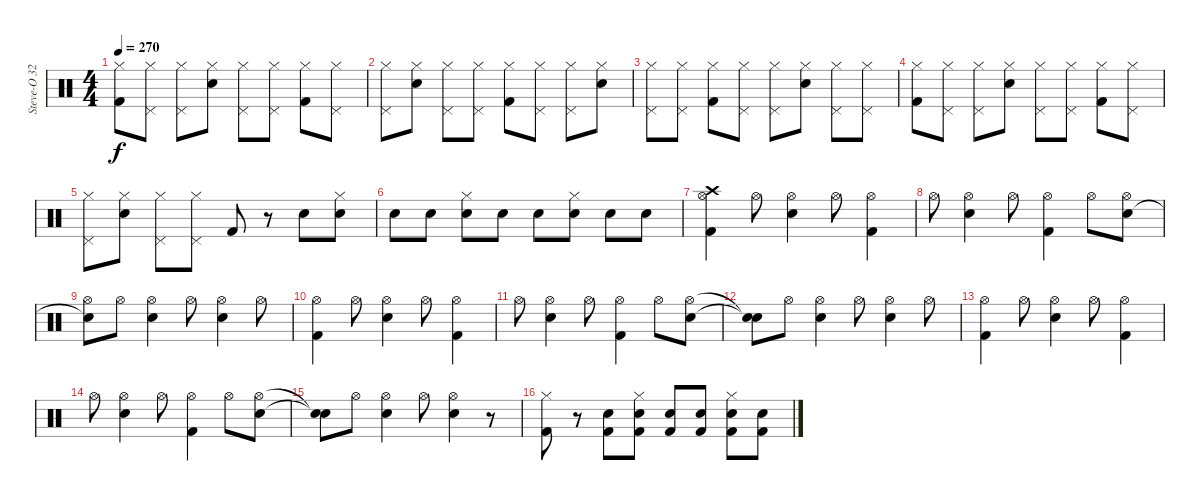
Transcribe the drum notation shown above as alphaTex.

\track ("Steve-O 32" "Steve-O 32") {instrument percussion}
\staff {score}
\articulation defaults
\ts (4 4)
\tempo 270
\clef neutral
\ks c
("Hi-Hat (closed)" "Kick (hit) 2").8{dy f} ("Pedal Hi-Hat (hit)" "Hi-Hat (closed)").8 ("Pedal Hi-Hat (hit)" "Hi-Hat (closed)").8 ("Electric Snare (hit)" "Hi-Hat (closed)").8 ("Pedal Hi-Hat (hit)" "Hi-Hat (closed)").8 ("Pedal Hi-Hat (hit)" "Hi-Hat (closed)").8 ("Hi-Hat (closed)" "Kick (hit) 2").8 ("Pedal Hi-Hat (hit)" "Hi-Hat (closed)").8 |
("Pedal Hi-Hat (hit)" "Hi-Hat (closed)").8 ("Electric Snare (hit)" "Hi-Hat (closed)").8 ("Pedal Hi-Hat (hit)" "Hi-Hat (closed)").8 ("Pedal Hi-Hat (hit)" "Hi-Hat (closed)").8 ("Kick (hit) 2" "Hi-Hat (closed)").8 ("Pedal Hi-Hat (hit)" "Hi-Hat (closed)").8 ("Pedal Hi-Hat (hit)" "Hi-Hat (closed)").8 ("Electric Snare (hit)" "Hi-Hat (closed)").8 |
("Pedal Hi-Hat (hit)" "Hi-Hat (closed)").8 ("Pedal Hi-Hat (hit)" "Hi-Hat (closed)").8 ("Kick (hit) 2" "Hi-Hat (closed)").8 ("Pedal Hi-Hat (hit)" "Hi-Hat (closed)").8 ("Pedal Hi-Hat (hit)" "Hi-Hat (closed)").8 ("Electric Snare (hit)" "Hi-Hat (closed)").8 ("Pedal Hi-Hat (hit)" "Hi-Hat (closed)").8 ("Pedal Hi-Hat (hit)" "Hi-Hat (closed)").8 |
("Hi-Hat (closed)" "Kick (hit) 2").8 ("Pedal Hi-Hat (hit)" "Hi-Hat (closed)").8 ("Pedal Hi-Hat (hit)" "Hi-Hat (closed)").8 ("Electric Snare (hit)" "Hi-Hat (closed)").8 ("Pedal Hi-Hat (hit)" "Hi-Hat (closed)").8 ("Pedal Hi-Hat (hit)" "Hi-Hat (closed)").8 ("Hi-Hat (closed)" "Kick (hit) 2").8 ("Pedal Hi-Hat (hit)" "Hi-Hat (closed)").8 |
("Pedal Hi-Hat (hit)" "Hi-Hat (closed)").8 ("Electric Snare (hit)" "Hi-Hat (closed)").8 ("Pedal Hi-Hat (hit)" "Hi-Hat (closed)").8 ("Pedal Hi-Hat (hit)" "Hi-Hat (closed)").8 "Kick (hit) 2".8 r.8 "Electric Snare (hit)".8 ("Electric Snare (hit)" "Hi-Hat (closed)").8 |
"Electric Snare (hit)".8 "Electric Snare (hit)".8 ("Electric Snare (hit)" "Hi-Hat (closed)").8 "Electric Snare (hit)".8 "Electric Snare (hit)".8 ("Electric Snare (hit)" "Hi-Hat (closed)").8 "Electric Snare (hit)".8 "Electric Snare (hit)".8 |
("Crash high (hit)" "Hi-Hat (open)" "Kick (hit) 2").4 "Hi-Hat (open)".8 ("Electric Snare (hit)" "Hi-Hat (open)").4 "Hi-Hat (open)".8 ("Kick (hit) 2" "Hi-Hat (open)").4 |
"Hi-Hat (open)".8 ("Electric Snare (hit)" "Hi-Hat (open)").4 "Hi-Hat (open)".8 ("Kick (hit) 2" "Hi-Hat (open)").4 "Hi-Hat (open)".8 ("Electric Snare (hit)" "Hi-Hat (open)").8 |
("Snare (hit)"{t} "Hi-Hat (open)").8 "Hi-Hat (open)".8 ("Electric Snare (hit)" "Hi-Hat (open)").4 "Hi-Hat (open)".8 ("Electric Snare (hit)" "Hi-Hat (open)").4 "Hi-Hat (open)".8 |
("Hi-Hat (open)" "Kick (hit) 2").4 "Hi-Hat (open)".8 ("Electric Snare (hit)" "Hi-Hat (open)").4 "Hi-Hat (open)".8 ("Kick (hit) 2" "Hi-Hat (open)").4 |
"Hi-Hat (open)".8 ("Electric Snare (hit)" "Hi-Hat (open)").4 "Hi-Hat (open)".8 ("Kick (hit) 2" "Hi-Hat (open)").4 "Hi-Hat (open)".8 ("Electric Snare (hit)" "Hi-Hat (open)").8 |
("Snare (hit)"{t} "Snare (hit)"{t}).8 "Hi-Hat (open)".8 ("Electric Snare (hit)" "Hi-Hat (open)").4 "Hi-Hat (open)".8 ("Electric Snare (hit)" "Hi-Hat (open)").4 "Hi-Hat (open)".8 |
("Hi-Hat (open)" "Kick (hit) 2").4 "Hi-Hat (open)".8 ("Electric Snare (hit)" "Hi-Hat (open)").4 "Hi-Hat (open)".8 ("Kick (hit) 2" "Hi-Hat (open)").4 |
"Hi-Hat (open)".8 ("Electric Snare (hit)" "Hi-Hat (open)").4 "Hi-Hat (open)".8 ("Kick (hit) 2" "Hi-Hat (open)").4 "Hi-Hat (open)".8 ("Electric Snare (hit)" "Hi-Hat (open)").8 |
("Snare (hit)"{t} "Snare (hit)"{t}).8 "Hi-Hat (open)".8 ("Electric Snare (hit)" "Hi-Hat (open)").4 "Hi-Hat (open)".8 ("Electric Snare (hit)" "Hi-Hat (open)").4 r.8{volume 5} |
("Hi-Hat (closed)" "Kick (hit) 2").8{volume 12} r.8 ("Electric Snare (hit)" "Kick (hit) 2").8 ("Electric Snare (hit)" "Hi-Hat (closed)" "Kick (hit) 2").8 ("Electric Snare (hit)" "Kick (hit) 2").8 ("Electric Snare (hit)" "Kick (hit) 2").8 ("Electric Snare (hit)" "Hi-Hat (closed)" "Kick (hit) 2").8 ("Electric Snare (hit)" "Kick (hit) 2").8
